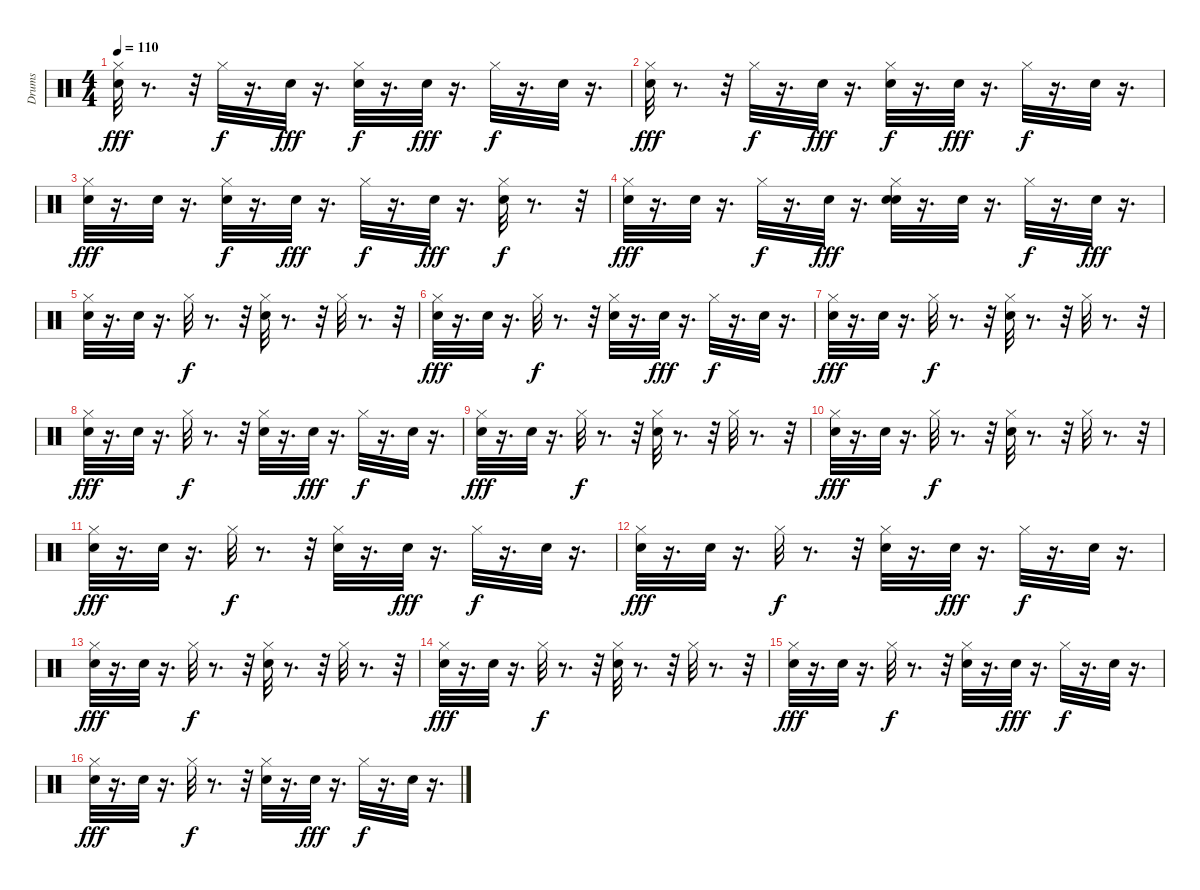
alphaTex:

\track ("Drums" "Drums") {instrument percussion}
\staff {score}
\articulation defaults
\ts (4 4)
\tempo 110
\clef neutral
\ks c
("Snare (hit)" "Hi-Hat (closed)").32{dy fff} r.8{d} r.32 "Hi-Hat (closed)".32{dy f} r.16{d} "Snare (hit)".32{dy fff} r.16{d} ("Snare (hit) 2" "Hi-Hat (closed)").32{dy f} r.16{d} "Snare (hit)".32{dy fff} r.16{d} "Hi-Hat (closed)".32{dy f} r.16{d} "Snare (hit) 2".32 r.16{d} |
("Snare (hit)" "Hi-Hat (closed)").32{dy fff} r.8{d} r.32 "Hi-Hat (closed)".32{dy f} r.16{d} "Snare (hit)".32{dy fff} r.16{d} ("Snare (hit) 2" "Hi-Hat (closed)").32{dy f} r.16{d} "Snare (hit)".32{dy fff} r.16{d} "Hi-Hat (closed)".32{dy f} r.16{d} "Snare (hit) 2".32 r.16{d} |
("Snare (hit)" "Hi-Hat (closed)").32{dy fff} r.16{d} "Snare (hit)".32 r.16{d} ("Snare (hit) 2" "Hi-Hat (closed)").32{dy f} r.16{d} "Snare (hit)".32{dy fff} r.16{d} "Hi-Hat (closed)".32{dy f} r.16{d} "Snare (hit)".32{dy fff} r.16{d} ("Snare (hit) 2" "Hi-Hat (closed)").32{dy f} r.8{d} r.32 |
("Snare (hit)" "Hi-Hat (closed)").32{dy fff} r.16{d} "Snare (hit)".32 r.16{d} "Hi-Hat (closed)".32{dy f} r.16{d} "Snare (hit)".32{dy fff} r.16{d} ("Snare (hit)" "Snare (hit) 2" "Hi-Hat (closed)").32 r.16{d} "Snare (hit)".32 r.16{d} "Hi-Hat (closed)".32{dy f} r.16{d} "Snare (hit)".32{dy fff} r.16{d} |
("Snare (hit)" "Hi-Hat (closed)").32 r.16{d} "Snare (hit)".32 r.16{d} "Hi-Hat (closed)".32{dy f} r.8{d} r.32 ("Snare (hit) 2" "Hi-Hat (closed)").32 r.8{d} r.32 "Hi-Hat (closed)".32 r.8{d} r.32 |
("Snare (hit)" "Hi-Hat (closed)").32{dy fff} r.16{d} "Snare (hit)".32 r.16{d} "Hi-Hat (closed)".32{dy f} r.8{d} r.32 ("Snare (hit) 2" "Hi-Hat (closed)").32 r.16{d} "Snare (hit)".32{dy fff} r.16{d} "Hi-Hat (closed)".32{dy f} r.16{d} "Snare (hit) 2".32 r.16{d} |
("Snare (hit)" "Hi-Hat (closed)").32{dy fff} r.16{d} "Snare (hit)".32 r.16{d} "Hi-Hat (closed)".32{dy f} r.8{d} r.32 ("Snare (hit) 2" "Hi-Hat (closed)").32 r.8{d} r.32 "Hi-Hat (closed)".32 r.8{d} r.32 |
("Snare (hit)" "Hi-Hat (closed)").32{dy fff} r.16{d} "Snare (hit)".32 r.16{d} "Hi-Hat (closed)".32{dy f} r.8{d} r.32 ("Snare (hit) 2" "Hi-Hat (closed)").32 r.16{d} "Snare (hit)".32{dy fff} r.16{d} "Hi-Hat (closed)".32{dy f} r.16{d} "Snare (hit) 2".32 r.16{d} |
("Snare (hit)" "Hi-Hat (closed)").32{dy fff} r.16{d} "Snare (hit)".32 r.16{d} "Hi-Hat (closed)".32{dy f} r.8{d} r.32 ("Snare (hit) 2" "Hi-Hat (closed)").32 r.8{d} r.32 "Hi-Hat (closed)".32 r.8{d} r.32 |
("Snare (hit)" "Hi-Hat (closed)").32{dy fff} r.16{d} "Snare (hit)".32 r.16{d} "Hi-Hat (closed)".32{dy f} r.8{d} r.32 ("Snare (hit) 2" "Hi-Hat (closed)").32 r.8{d} r.32 "Hi-Hat (closed)".32 r.8{d} r.32 |
("Snare (hit)" "Hi-Hat (closed)").32{dy fff} r.16{d} "Snare (hit)".32 r.16{d} "Hi-Hat (closed)".32{dy f} r.8{d} r.32 ("Snare (hit) 2" "Hi-Hat (closed)").32 r.16{d} "Snare (hit)".32{dy fff} r.16{d} "Hi-Hat (closed)".32{dy f} r.16{d} "Snare (hit) 2".32 r.16{d} |
("Snare (hit)" "Hi-Hat (closed)").32{dy fff} r.16{d} "Snare (hit)".32 r.16{d} "Hi-Hat (closed)".32{dy f} r.8{d} r.32 ("Snare (hit) 2" "Hi-Hat (closed)").32 r.16{d} "Snare (hit)".32{dy fff} r.16{d} "Hi-Hat (closed)".32{dy f} r.16{d} "Snare (hit) 2".32 r.16{d} |
("Snare (hit)" "Hi-Hat (closed)").32{dy fff} r.16{d} "Snare (hit)".32 r.16{d} "Hi-Hat (closed)".32{dy f} r.8{d} r.32 ("Snare (hit) 2" "Hi-Hat (closed)").32 r.8{d} r.32 "Hi-Hat (closed)".32 r.8{d} r.32 |
("Snare (hit)" "Hi-Hat (closed)").32{dy fff} r.16{d} "Snare (hit)".32 r.16{d} "Hi-Hat (closed)".32{dy f} r.8{d} r.32 ("Snare (hit) 2" "Hi-Hat (closed)").32 r.8{d} r.32 "Hi-Hat (closed)".32 r.8{d} r.32 |
("Snare (hit)" "Hi-Hat (closed)").32{dy fff} r.16{d} "Snare (hit)".32 r.16{d} "Hi-Hat (closed)".32{dy f} r.8{d} r.32 ("Snare (hit) 2" "Hi-Hat (closed)").32 r.16{d} "Snare (hit)".32{dy fff} r.16{d} "Hi-Hat (closed)".32{dy f} r.16{d} "Snare (hit) 2".32 r.16{d} |
("Snare (hit)" "Hi-Hat (closed)").32{dy fff} r.16{d} "Snare (hit)".32 r.16{d} "Hi-Hat (closed)".32{dy f} r.8{d} r.32 ("Snare (hit) 2" "Hi-Hat (closed)").32 r.16{d} "Snare (hit)".32{dy fff} r.16{d} "Hi-Hat (closed)".32{dy f} r.16{d} "Snare (hit) 2".32 r.16{d}
